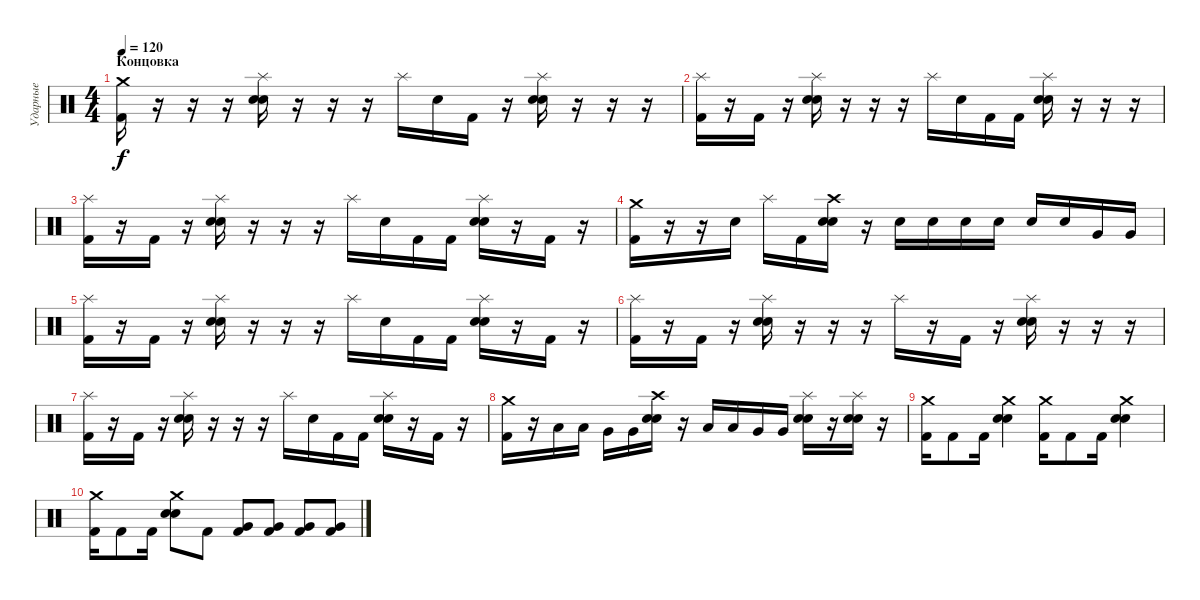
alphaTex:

\track ("Ударные" "Ударные") {instrument percussion}
\staff {score}
\articulation defaults
\ts (4 4)
\section ("" "Концовка")
\tempo 120
\clef neutral
\ks c
("Crash medium (hit)" "Kick (hit) 2").16{dy f} r.16 r.16 r.16 ("Splash (hit)" "Electric Snare (hit)" "Snare (hit) 2").16 r.16 r.16 r.16 "Splash (hit)".16 "Electric Snare (hit)".16 "Kick (hit) 2".16 r.16 ("Splash (hit)" "Electric Snare (hit)" "Snare (hit) 2").16 r.16 r.16 r.16 |
("Splash (hit)" "Kick (hit) 2").16 r.16 "Kick (hit) 2".16 r.16 ("Splash (hit)" "Electric Snare (hit)" "Snare (hit) 2").16 r.16 r.16 r.16 "Splash (hit)".16 "Electric Snare (hit)".16 "Kick (hit) 2".16 "Kick (hit) 2".16 ("Splash (hit)" "Electric Snare (hit)" "Snare (hit) 2").16 r.16 r.16 r.16 |
("Splash (hit)" "Kick (hit) 2").16 r.16 "Kick (hit) 2".16 r.16 ("Splash (hit)" "Electric Snare (hit)" "Snare (hit) 2").16 r.16 r.16 r.16 "Splash (hit)".16 "Electric Snare (hit)".16 "Kick (hit) 2".16 "Kick (hit) 2".16 ("Splash (hit)" "Electric Snare (hit)" "Snare (hit) 2").16 r.16 "Kick (hit) 2".16 r.16 |
("Crash medium (hit)" "Kick (hit) 2").16 r.16 r.16 "Electric Snare (hit)".16 "Splash (hit)".16 "Kick (hit) 2".16 ("Crash high (hit)" "Electric Snare (hit)" "Snare (hit) 2").16 r.16 "Electric Snare (hit)".16 "Electric Snare (hit)".16 "Snare (hit) 2".16 "Snare (hit) 2".16 "Electric Snare (hit)".16 "Electric Snare (hit)".16 "Very Low Tom (hit)".16 "Very Low Tom (hit)".16 |
("Splash (hit)" "Kick (hit) 2").16 r.16 "Kick (hit) 2".16 r.16 ("Splash (hit)" "Electric Snare (hit)" "Snare (hit) 2").16 r.16 r.16 r.16 "Splash (hit)".16 "Electric Snare (hit)".16 "Kick (hit) 2".16 "Kick (hit) 2".16 ("Splash (hit)" "Electric Snare (hit)" "Snare (hit) 2").16 r.16 "Kick (hit) 2".16 r.16 |
("Splash (hit)" "Kick (hit) 2").16 r.16 "Kick (hit) 2".16 r.16 ("Splash (hit)" "Electric Snare (hit)" "Snare (hit) 2").16 r.16 r.16 r.16 "Splash (hit)".16 r.16 "Kick (hit) 2".16 r.16 ("Splash (hit)" "Electric Snare (hit)" "Snare (hit) 2").16 r.16 r.16 r.16 |
("Splash (hit)" "Kick (hit) 2").16 r.16 "Kick (hit) 2".16 r.16 ("Splash (hit)" "Electric Snare (hit)" "Snare (hit) 2").16 r.16 r.16 r.16 "Splash (hit)".16 "Electric Snare (hit)".16 "Kick (hit) 2".16 "Kick (hit) 2".16 ("Splash (hit)" "Electric Snare (hit)" "Snare (hit) 2").16 r.16 "Kick (hit) 2".16 r.16 |
("Crash medium (hit)" "Kick (hit) 2").16 r.16 "Low Tom (hit)".16 "Low Tom (hit)".16 "Very Low Tom (hit)".16 "Very Low Tom (hit)".16 ("Crash high (hit)" "Electric Snare (hit)" "Snare (hit) 2").16 r.16 "Low Tom (hit)".16 "Low Tom (hit)".16 "Very Low Tom (hit)".16 "Very Low Tom (hit)".16 ("Splash (hit)" "Electric Snare (hit)" "Snare (hit) 2").16 r.16 ("Splash (hit)" "Electric Snare (hit)" "Snare (hit) 2").16 r.16 |
("Crash medium (hit)" "Kick (hit) 2").16 "Kick (hit) 2".8 "Kick (hit) 2".16 ("Crash medium (hit)" "Electric Snare (hit)" "Snare (hit) 2").4 ("Crash medium (hit)" "Kick (hit) 2").16 "Kick (hit) 2".8 "Kick (hit) 2".16 ("Crash medium (hit)" "Electric Snare (hit)" "Snare (hit) 2").4 |
("Crash medium (hit)" "Kick (hit) 2").16 "Kick (hit) 2".8 "Kick (hit) 2".16 ("Crash medium (hit)" "Electric Snare (hit)" "Snare (hit) 2").8 "Kick (hit) 2".8 ("Very Low Tom (hit)" "Kick (hit) 2").8 ("Very Low Tom (hit)" "Kick (hit) 2").8 ("Very Low Tom (hit)" "Kick (hit) 2").8 ("Very Low Tom (hit)" "Kick (hit) 2").8
